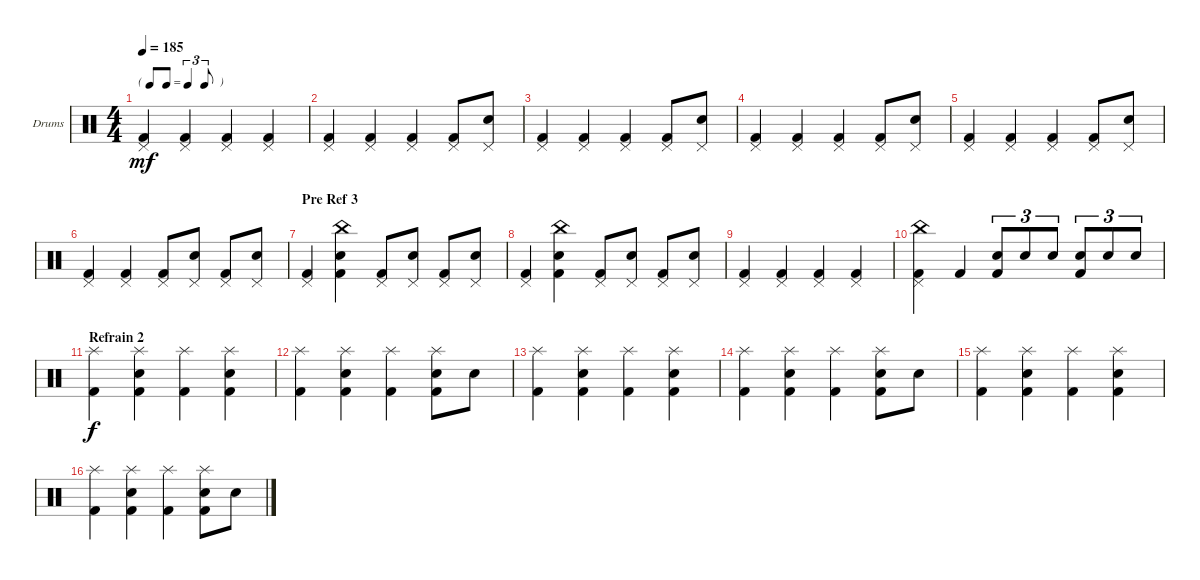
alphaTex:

\defaultSystemsLayout 4
\bracketExtendMode groupsimilarinstruments
\firstSystemTrackNameOrientation horizontal
\otherSystemsTrackNameOrientation horizontal
\track ("Batterie" "Drums") {instrument percussion}
\staff {score}
\articulation defaults
\ts (4 4)
\tf triplet8th
\tempo 185
\clef neutral
\ks c
("Kick (hit) 2" "Pedal Hi-Hat (hit)").4{dy mf} ("Kick (hit) 2" "Pedal Hi-Hat (hit)").4 ("Kick (hit) 2" "Pedal Hi-Hat (hit)").4 ("Kick (hit) 2" "Pedal Hi-Hat (hit)").4 |
("Kick (hit) 2" "Pedal Hi-Hat (hit)").4 ("Kick (hit) 2" "Pedal Hi-Hat (hit)").4 ("Kick (hit) 2" "Pedal Hi-Hat (hit)").4 ("Kick (hit) 2" "Pedal Hi-Hat (hit)").8 ("Pedal Hi-Hat (hit)" "Snare (hit) 2").8 |
("Kick (hit) 2" "Pedal Hi-Hat (hit)").4 ("Kick (hit) 2" "Pedal Hi-Hat (hit)").4 ("Kick (hit) 2" "Pedal Hi-Hat (hit)").4 ("Kick (hit) 2" "Pedal Hi-Hat (hit)").8 ("Pedal Hi-Hat (hit)" "Snare (hit) 2").8 |
("Kick (hit) 2" "Pedal Hi-Hat (hit)").4 ("Kick (hit) 2" "Pedal Hi-Hat (hit)").4 ("Kick (hit) 2" "Pedal Hi-Hat (hit)").4 ("Kick (hit) 2" "Pedal Hi-Hat (hit)").8 ("Pedal Hi-Hat (hit)" "Snare (hit) 2").8 |
("Kick (hit) 2" "Pedal Hi-Hat (hit)").4 ("Kick (hit) 2" "Pedal Hi-Hat (hit)").4 ("Kick (hit) 2" "Pedal Hi-Hat (hit)").4 ("Kick (hit) 2" "Pedal Hi-Hat (hit)").8 ("Pedal Hi-Hat (hit)" "Snare (hit) 2").8 |
("Kick (hit) 2" "Pedal Hi-Hat (hit)").4 ("Kick (hit) 2" "Pedal Hi-Hat (hit)").4 ("Kick (hit) 2" "Pedal Hi-Hat (hit)").8 ("Pedal Hi-Hat (hit)" "Snare (hit) 2").8 ("Kick (hit) 2" "Pedal Hi-Hat (hit)").8 ("Pedal Hi-Hat (hit)" "Snare (hit) 2").8 |
\section ("" "Pre Ref 3")
("Kick (hit) 2" "Pedal Hi-Hat (hit)").4 ("Snare (hit) 2" "China (hit)" "Kick (hit) 2").4 ("Kick (hit) 2" "Pedal Hi-Hat (hit)").8 ("Pedal Hi-Hat (hit)" "Snare (hit) 2").8 ("Kick (hit) 2" "Pedal Hi-Hat (hit)").8 ("Pedal Hi-Hat (hit)" "Snare (hit) 2").8 |
("Kick (hit) 2" "Pedal Hi-Hat (hit)").4 ("Snare (hit) 2" "China (hit)" "Kick (hit) 2").4 ("Kick (hit) 2" "Pedal Hi-Hat (hit)").8 ("Pedal Hi-Hat (hit)" "Snare (hit) 2").8 ("Kick (hit) 2" "Pedal Hi-Hat (hit)").8 ("Pedal Hi-Hat (hit)" "Snare (hit) 2").8 |
("Kick (hit) 2" "Pedal Hi-Hat (hit)").4 ("Kick (hit) 2" "Pedal Hi-Hat (hit)").4 ("Kick (hit) 2" "Pedal Hi-Hat (hit)").4 ("Kick (hit) 2" "Pedal Hi-Hat (hit)").4 |
("Kick (hit) 2" "Pedal Hi-Hat (hit)" "China (hit)").4 "Kick (hit) 2".4 ("Snare (hit) 2" "Kick (hit) 2").8{tu (3 2)} "Snare (hit) 2".8{tu (3 2)} "Snare (hit) 2".8{tu (3 2)} ("Snare (hit) 2" "Kick (hit) 2").8{tu (3 2)} "Snare (hit) 2".8{tu (3 2)} "Snare (hit) 2".8{tu (3 2)} |
\section ("" "Refrain 2")
("Kick (hit) 2" "Splash (hit)").4{dy f} ("Kick (hit) 2" "Snare (hit) 2" "Splash (hit)").4 ("Kick (hit) 2" "Splash (hit)").4 ("Kick (hit) 2" "Snare (hit) 2" "Splash (hit)").4 |
("Kick (hit) 2" "Splash (hit)").4 ("Kick (hit) 2" "Snare (hit) 2" "Splash (hit)").4 ("Kick (hit) 2" "Splash (hit)").4 ("Kick (hit) 2" "Snare (hit) 2" "Splash (hit)").8 "Snare (hit) 2".8 |
("Kick (hit) 2" "Splash (hit)").4 ("Kick (hit) 2" "Snare (hit) 2" "Splash (hit)").4 ("Kick (hit) 2" "Splash (hit)").4 ("Kick (hit) 2" "Snare (hit) 2" "Splash (hit)").4 |
("Kick (hit) 2" "Splash (hit)").4 ("Kick (hit) 2" "Snare (hit) 2" "Splash (hit)").4 ("Kick (hit) 2" "Splash (hit)").4 ("Kick (hit) 2" "Snare (hit) 2" "Splash (hit)").8 "Snare (hit) 2".8 |
("Kick (hit) 2" "Splash (hit)").4 ("Kick (hit) 2" "Snare (hit) 2" "Splash (hit)").4 ("Kick (hit) 2" "Splash (hit)").4 ("Kick (hit) 2" "Snare (hit) 2" "Splash (hit)").4 |
("Kick (hit) 2" "Splash (hit)").4 ("Kick (hit) 2" "Snare (hit) 2" "Splash (hit)").4 ("Kick (hit) 2" "Splash (hit)").4 ("Kick (hit) 2" "Snare (hit) 2" "Splash (hit)").8 "Snare (hit) 2".8
